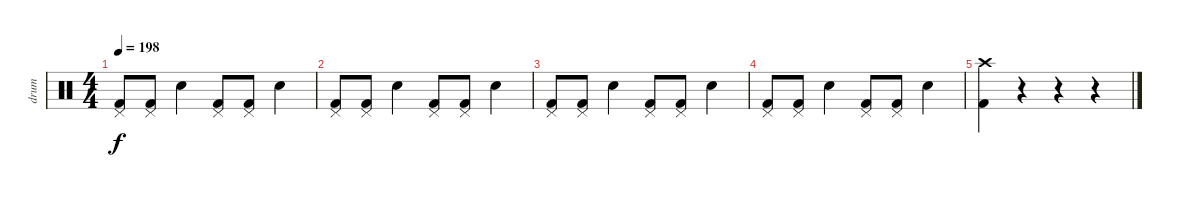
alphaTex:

\track ("drum" "drum") {instrument percussion}
\staff {score}
\articulation defaults
\ts (4 4)
\tempo 198
\clef neutral
\ks c
("Pedal Hi-Hat (hit)" "Kick (hit) 2").8{dy f} ("Pedal Hi-Hat (hit)" "Kick (hit) 2").8 "Electric Snare (hit)".4 ("Pedal Hi-Hat (hit)" "Kick (hit) 2").8 ("Pedal Hi-Hat (hit)" "Kick (hit) 2").8 "Electric Snare (hit)".4 |
("Pedal Hi-Hat (hit)" "Kick (hit) 2").8 ("Pedal Hi-Hat (hit)" "Kick (hit) 2").8 "Electric Snare (hit)".4 ("Pedal Hi-Hat (hit)" "Kick (hit) 2").8 ("Pedal Hi-Hat (hit)" "Kick (hit) 2").8 "Electric Snare (hit)".4 |
("Pedal Hi-Hat (hit)" "Kick (hit) 2").8 ("Pedal Hi-Hat (hit)" "Kick (hit) 2").8 "Electric Snare (hit)".4 ("Pedal Hi-Hat (hit)" "Kick (hit) 2").8 ("Pedal Hi-Hat (hit)" "Kick (hit) 2").8 "Electric Snare (hit)".4 |
("Pedal Hi-Hat (hit)" "Kick (hit) 2").8 ("Pedal Hi-Hat (hit)" "Kick (hit) 2").8 "Electric Snare (hit)".4 ("Pedal Hi-Hat (hit)" "Kick (hit) 2").8 ("Pedal Hi-Hat (hit)" "Kick (hit) 2").8 "Electric Snare (hit)".4 |
("Crash high (hit)" "Kick (hit) 2").4 r.4 r.4 r.4
